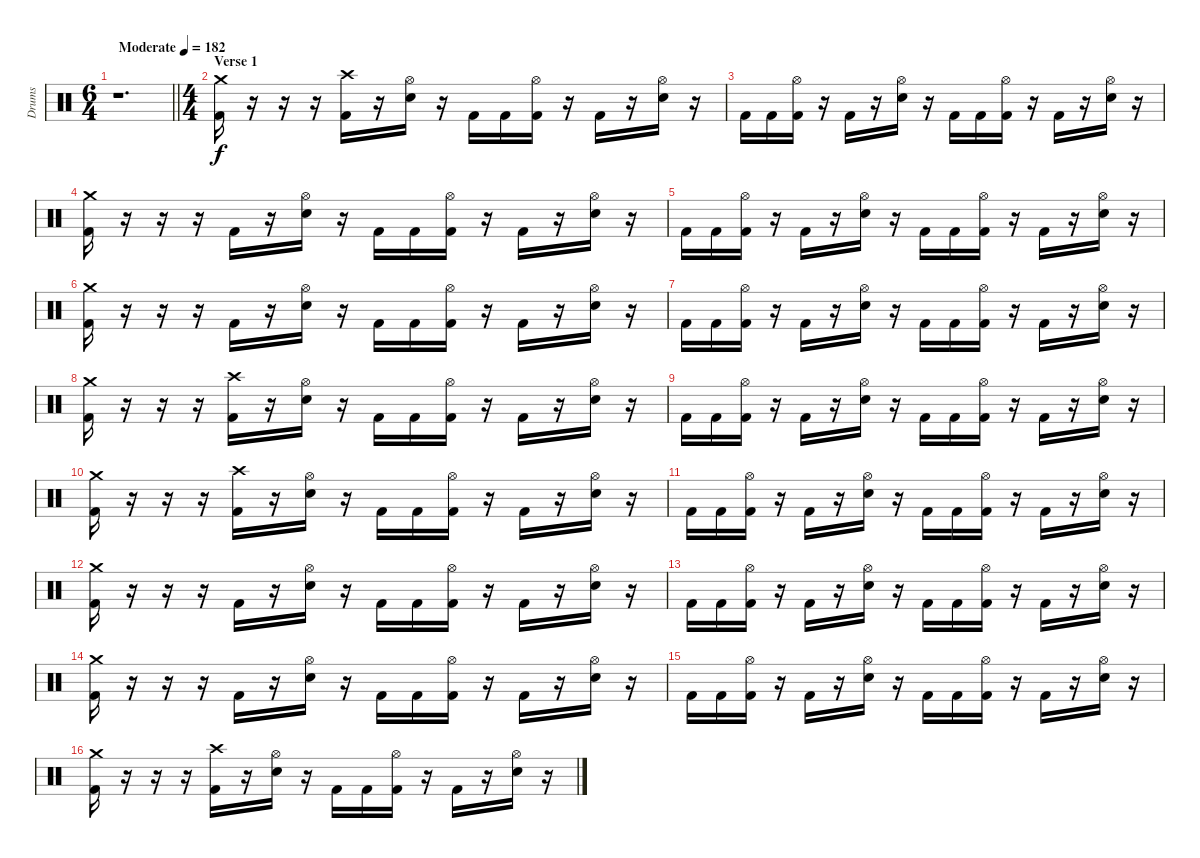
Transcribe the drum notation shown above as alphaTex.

\track ("Drums" "Drums") {instrument percussion}
\staff {score}
\articulation defaults
\ts (6 4)
\tempo (182 "Moderate")
\clef neutral
\barLineRight lightlight
\ks c
r.1{d dy f} |
\ts (4 4)
\section ("" "Verse 1")
("Crash medium (hit)" "Kick (hit) 2").16 r.16 r.16 r.16 ("Crash high (hit)" "Kick (hit) 2").16 r.16 ("Hi-Hat (open)" "Electric Snare (hit)").16 r.16 "Kick (hit) 2".16 "Kick (hit) 2".16 ("Hi-Hat (open)" "Kick (hit) 2").16 r.16 "Kick (hit) 2".16 r.16 ("Hi-Hat (open)" "Electric Snare (hit)").16 r.16 |
"Kick (hit) 2".16 "Kick (hit) 2".16 ("Hi-Hat (open)" "Kick (hit) 2").16 r.16 "Kick (hit) 2".16 r.16 ("Hi-Hat (open)" "Electric Snare (hit)").16 r.16 "Kick (hit) 2".16 "Kick (hit) 2".16 ("Hi-Hat (open)" "Kick (hit) 2").16 r.16 "Kick (hit) 2".16 r.16 ("Hi-Hat (open)" "Electric Snare (hit)").16 r.16 |
("Crash medium (hit)" "Kick (hit) 2").16 r.16 r.16 r.16 "Kick (hit) 2".16 r.16 ("Hi-Hat (open)" "Electric Snare (hit)").16 r.16 "Kick (hit) 2".16 "Kick (hit) 2".16 ("Hi-Hat (open)" "Kick (hit) 2").16 r.16 "Kick (hit) 2".16 r.16 ("Hi-Hat (open)" "Electric Snare (hit)").16 r.16 |
"Kick (hit) 2".16 "Kick (hit) 2".16 ("Hi-Hat (open)" "Kick (hit) 2").16 r.16 "Kick (hit) 2".16 r.16 ("Hi-Hat (open)" "Electric Snare (hit)").16 r.16 "Kick (hit) 2".16 "Kick (hit) 2".16 ("Hi-Hat (open)" "Kick (hit) 2").16 r.16 "Kick (hit) 2".16 r.16 ("Hi-Hat (open)" "Electric Snare (hit)").16 r.16 |
("Crash medium (hit)" "Kick (hit) 2").16 r.16 r.16 r.16 "Kick (hit) 2".16 r.16 ("Hi-Hat (open)" "Electric Snare (hit)").16 r.16 "Kick (hit) 2".16 "Kick (hit) 2".16 ("Hi-Hat (open)" "Kick (hit) 2").16 r.16 "Kick (hit) 2".16 r.16 ("Hi-Hat (open)" "Electric Snare (hit)").16 r.16 |
"Kick (hit) 2".16 "Kick (hit) 2".16 ("Hi-Hat (open)" "Kick (hit) 2").16 r.16 "Kick (hit) 2".16 r.16 ("Hi-Hat (open)" "Electric Snare (hit)").16 r.16 "Kick (hit) 2".16 "Kick (hit) 2".16 ("Hi-Hat (open)" "Kick (hit) 2").16 r.16 "Kick (hit) 2".16 r.16 ("Hi-Hat (open)" "Electric Snare (hit)").16 r.16 |
("Crash medium (hit)" "Kick (hit) 2").16 r.16 r.16 r.16 ("Crash high (hit)" "Kick (hit) 2").16 r.16 ("Hi-Hat (open)" "Electric Snare (hit)").16 r.16 "Kick (hit) 2".16 "Kick (hit) 2".16 ("Hi-Hat (open)" "Kick (hit) 2").16 r.16 "Kick (hit) 2".16 r.16 ("Hi-Hat (open)" "Electric Snare (hit)").16 r.16 |
"Kick (hit) 2".16 "Kick (hit) 2".16 ("Hi-Hat (open)" "Kick (hit) 2").16 r.16 "Kick (hit) 2".16 r.16 ("Hi-Hat (open)" "Electric Snare (hit)").16 r.16 "Kick (hit) 2".16 "Kick (hit) 2".16 ("Hi-Hat (open)" "Kick (hit) 2").16 r.16 "Kick (hit) 2".16 r.16 ("Hi-Hat (open)" "Electric Snare (hit)").16 r.16 |
("Crash medium (hit)" "Kick (hit) 2").16 r.16 r.16 r.16 ("Crash high (hit)" "Kick (hit) 2").16 r.16 ("Hi-Hat (open)" "Electric Snare (hit)").16 r.16 "Kick (hit) 2".16 "Kick (hit) 2".16 ("Hi-Hat (open)" "Kick (hit) 2").16 r.16 "Kick (hit) 2".16 r.16 ("Hi-Hat (open)" "Electric Snare (hit)").16 r.16 |
"Kick (hit) 2".16 "Kick (hit) 2".16 ("Hi-Hat (open)" "Kick (hit) 2").16 r.16 "Kick (hit) 2".16 r.16 ("Hi-Hat (open)" "Electric Snare (hit)").16 r.16 "Kick (hit) 2".16 "Kick (hit) 2".16 ("Hi-Hat (open)" "Kick (hit) 2").16 r.16 "Kick (hit) 2".16 r.16 ("Hi-Hat (open)" "Electric Snare (hit)").16 r.16 |
("Crash medium (hit)" "Kick (hit) 2").16 r.16 r.16 r.16 "Kick (hit) 2".16 r.16 ("Hi-Hat (open)" "Electric Snare (hit)").16 r.16 "Kick (hit) 2".16 "Kick (hit) 2".16 ("Hi-Hat (open)" "Kick (hit) 2").16 r.16 "Kick (hit) 2".16 r.16 ("Hi-Hat (open)" "Electric Snare (hit)").16 r.16 |
"Kick (hit) 2".16 "Kick (hit) 2".16 ("Hi-Hat (open)" "Kick (hit) 2").16 r.16 "Kick (hit) 2".16 r.16 ("Hi-Hat (open)" "Electric Snare (hit)").16 r.16 "Kick (hit) 2".16 "Kick (hit) 2".16 ("Hi-Hat (open)" "Kick (hit) 2").16 r.16 "Kick (hit) 2".16 r.16 ("Hi-Hat (open)" "Electric Snare (hit)").16 r.16 |
("Crash medium (hit)" "Kick (hit) 2").16 r.16 r.16 r.16 "Kick (hit) 2".16 r.16 ("Hi-Hat (open)" "Electric Snare (hit)").16 r.16 "Kick (hit) 2".16 "Kick (hit) 2".16 ("Hi-Hat (open)" "Kick (hit) 2").16 r.16 "Kick (hit) 2".16 r.16 ("Hi-Hat (open)" "Electric Snare (hit)").16 r.16 |
"Kick (hit) 2".16 "Kick (hit) 2".16 ("Hi-Hat (open)" "Kick (hit) 2").16 r.16 "Kick (hit) 2".16 r.16 ("Hi-Hat (open)" "Electric Snare (hit)").16 r.16 "Kick (hit) 2".16 "Kick (hit) 2".16 ("Hi-Hat (open)" "Kick (hit) 2").16 r.16 "Kick (hit) 2".16 r.16 ("Hi-Hat (open)" "Electric Snare (hit)").16 r.16 |
("Crash medium (hit)" "Kick (hit) 2").16 r.16 r.16 r.16 ("Crash high (hit)" "Kick (hit) 2").16 r.16 ("Hi-Hat (open)" "Electric Snare (hit)").16 r.16 "Kick (hit) 2".16 "Kick (hit) 2".16 ("Hi-Hat (open)" "Kick (hit) 2").16 r.16 "Kick (hit) 2".16 r.16 ("Hi-Hat (open)" "Electric Snare (hit)").16 r.16
